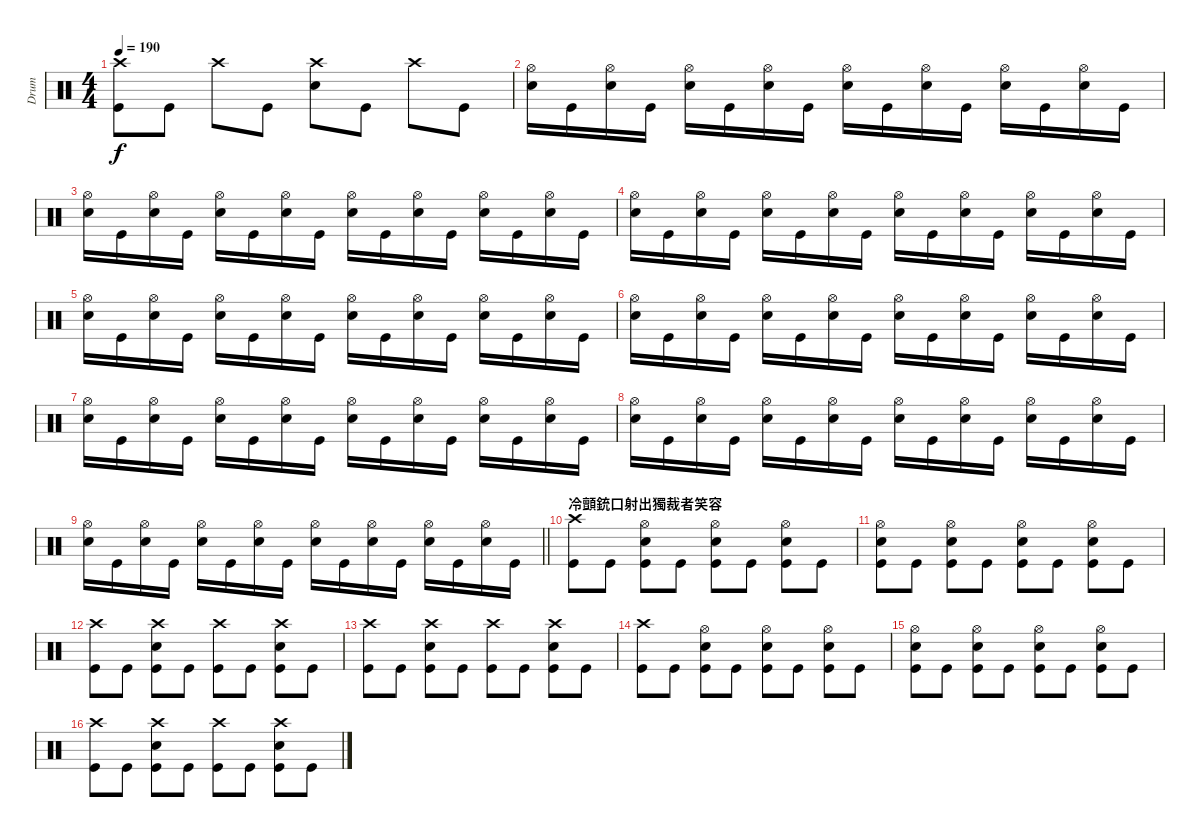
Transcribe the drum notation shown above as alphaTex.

\track ("Drum" "Drum") {instrument percussion}
\staff {score}
\articulation defaults
\ts (4 4)
\tempo 190
\clef neutral
\ks c
("Crash high (hit)" "Kick (hit)").8{dy f} "Kick (hit)".8 "Crash high (hit)".8 "Kick (hit)".8 ("Snare (hit) 2" "Crash high (hit)").8 "Kick (hit)".8 "Crash high (hit)".8 "Kick (hit)".8 |
("Hi-Hat (open)" "Snare (hit) 2").16 "Kick (hit)".16 ("Hi-Hat (open)" "Snare (hit) 2").16 "Kick (hit)".16 ("Hi-Hat (open)" "Snare (hit) 2").16 "Kick (hit)".16 ("Hi-Hat (open)" "Snare (hit) 2").16 "Kick (hit)".16 ("Hi-Hat (open)" "Snare (hit) 2").16 "Kick (hit)".16 ("Hi-Hat (open)" "Snare (hit) 2").16 "Kick (hit)".16 ("Hi-Hat (open)" "Snare (hit) 2").16 "Kick (hit)".16 ("Hi-Hat (open)" "Snare (hit) 2").16 "Kick (hit)".16 |
("Hi-Hat (open)" "Snare (hit) 2").16 "Kick (hit)".16 ("Hi-Hat (open)" "Snare (hit) 2").16 "Kick (hit)".16 ("Hi-Hat (open)" "Snare (hit) 2").16 "Kick (hit)".16 ("Hi-Hat (open)" "Snare (hit) 2").16 "Kick (hit)".16 ("Hi-Hat (open)" "Snare (hit) 2").16 "Kick (hit)".16 ("Hi-Hat (open)" "Snare (hit) 2").16 "Kick (hit)".16 ("Hi-Hat (open)" "Snare (hit) 2").16 "Kick (hit)".16 ("Hi-Hat (open)" "Snare (hit) 2").16 "Kick (hit)".16 |
("Hi-Hat (open)" "Snare (hit) 2").16 "Kick (hit)".16 ("Hi-Hat (open)" "Snare (hit) 2").16 "Kick (hit)".16 ("Hi-Hat (open)" "Snare (hit) 2").16 "Kick (hit)".16 ("Hi-Hat (open)" "Snare (hit) 2").16 "Kick (hit)".16 ("Hi-Hat (open)" "Snare (hit) 2").16 "Kick (hit)".16 ("Hi-Hat (open)" "Snare (hit) 2").16 "Kick (hit)".16 ("Hi-Hat (open)" "Snare (hit) 2").16 "Kick (hit)".16 ("Hi-Hat (open)" "Snare (hit) 2").16 "Kick (hit)".16 |
("Hi-Hat (open)" "Snare (hit) 2").16 "Kick (hit)".16 ("Hi-Hat (open)" "Snare (hit) 2").16 "Kick (hit)".16 ("Hi-Hat (open)" "Snare (hit) 2").16 "Kick (hit)".16 ("Hi-Hat (open)" "Snare (hit) 2").16 "Kick (hit)".16 ("Hi-Hat (open)" "Snare (hit) 2").16 "Kick (hit)".16 ("Hi-Hat (open)" "Snare (hit) 2").16 "Kick (hit)".16 ("Hi-Hat (open)" "Snare (hit) 2").16 "Kick (hit)".16 ("Hi-Hat (open)" "Snare (hit) 2").16 "Kick (hit)".16 |
("Hi-Hat (open)" "Snare (hit) 2").16 "Kick (hit)".16 ("Hi-Hat (open)" "Snare (hit) 2").16 "Kick (hit)".16 ("Hi-Hat (open)" "Snare (hit) 2").16 "Kick (hit)".16 ("Hi-Hat (open)" "Snare (hit) 2").16 "Kick (hit)".16 ("Hi-Hat (open)" "Snare (hit) 2").16 "Kick (hit)".16 ("Hi-Hat (open)" "Snare (hit) 2").16 "Kick (hit)".16 ("Hi-Hat (open)" "Snare (hit) 2").16 "Kick (hit)".16 ("Hi-Hat (open)" "Snare (hit) 2").16 "Kick (hit)".16 |
("Hi-Hat (open)" "Snare (hit) 2").16 "Kick (hit)".16 ("Hi-Hat (open)" "Snare (hit) 2").16 "Kick (hit)".16 ("Hi-Hat (open)" "Snare (hit) 2").16 "Kick (hit)".16 ("Hi-Hat (open)" "Snare (hit) 2").16 "Kick (hit)".16 ("Hi-Hat (open)" "Snare (hit) 2").16 "Kick (hit)".16 ("Hi-Hat (open)" "Snare (hit) 2").16 "Kick (hit)".16 ("Hi-Hat (open)" "Snare (hit) 2").16 "Kick (hit)".16 ("Hi-Hat (open)" "Snare (hit) 2").16 "Kick (hit)".16 |
("Hi-Hat (open)" "Snare (hit) 2").16 "Kick (hit)".16 ("Hi-Hat (open)" "Snare (hit) 2").16 "Kick (hit)".16 ("Hi-Hat (open)" "Snare (hit) 2").16 "Kick (hit)".16 ("Hi-Hat (open)" "Snare (hit) 2").16 "Kick (hit)".16 ("Hi-Hat (open)" "Snare (hit) 2").16 "Kick (hit)".16 ("Hi-Hat (open)" "Snare (hit) 2").16 "Kick (hit)".16 ("Hi-Hat (open)" "Snare (hit) 2").16 "Kick (hit)".16 ("Hi-Hat (open)" "Snare (hit) 2").16 "Kick (hit)".16 |
\barLineRight lightlight
("Hi-Hat (open)" "Snare (hit) 2").16 "Kick (hit)".16 ("Hi-Hat (open)" "Snare (hit) 2").16 "Kick (hit)".16 ("Hi-Hat (open)" "Snare (hit) 2").16 "Kick (hit)".16 ("Hi-Hat (open)" "Snare (hit) 2").16 "Kick (hit)".16 ("Hi-Hat (open)" "Snare (hit) 2").16 "Kick (hit)".16 ("Hi-Hat (open)" "Snare (hit) 2").16 "Kick (hit)".16 ("Hi-Hat (open)" "Snare (hit) 2").16 "Kick (hit)".16 ("Hi-Hat (open)" "Snare (hit) 2").16 "Kick (hit)".16 |
\section ("" "冷顫銃口射出獨裁者笑容")
("Crash high (hit)" "Kick (hit)").8 "Kick (hit)".8 ("Hi-Hat (open)" "Snare (hit) 2" "Kick (hit)").8 "Kick (hit)".8 ("Hi-Hat (open)" "Snare (hit) 2" "Kick (hit)").8 "Kick (hit)".8 ("Hi-Hat (open)" "Snare (hit) 2" "Kick (hit)").8 "Kick (hit)".8 |
("Hi-Hat (open)" "Snare (hit) 2" "Kick (hit)").8 "Kick (hit)".8 ("Hi-Hat (open)" "Snare (hit) 2" "Kick (hit)").8 "Kick (hit)".8 ("Hi-Hat (open)" "Snare (hit) 2" "Kick (hit)").8 "Kick (hit)".8 ("Hi-Hat (open)" "Snare (hit) 2" "Kick (hit)").8 "Kick (hit)".8 |
("Crash high (hit)" "Kick (hit)").8 "Kick (hit)".8 ("Crash high (hit)" "Kick (hit)" "Snare (hit) 2").8 "Kick (hit)".8 ("Crash high (hit)" "Kick (hit)").8 "Kick (hit)".8 ("Snare (hit) 2" "Kick (hit)" "Crash high (hit)").8 "Kick (hit)".8 |
("Crash high (hit)" "Kick (hit)").8 "Kick (hit)".8 ("Crash high (hit)" "Kick (hit)" "Snare (hit) 2").8 "Kick (hit)".8 ("Crash high (hit)" "Kick (hit)").8 "Kick (hit)".8 ("Snare (hit) 2" "Kick (hit)" "Crash high (hit)").8 "Kick (hit)".8 |
("Crash high (hit)" "Kick (hit)").8 "Kick (hit)".8 ("Hi-Hat (open)" "Snare (hit) 2" "Kick (hit)").8 "Kick (hit)".8 ("Hi-Hat (open)" "Snare (hit) 2" "Kick (hit)").8 "Kick (hit)".8 ("Hi-Hat (open)" "Snare (hit) 2" "Kick (hit)").8 "Kick (hit)".8 |
("Hi-Hat (open)" "Snare (hit) 2" "Kick (hit)").8 "Kick (hit)".8 ("Hi-Hat (open)" "Snare (hit) 2" "Kick (hit)").8 "Kick (hit)".8 ("Hi-Hat (open)" "Snare (hit) 2" "Kick (hit)").8 "Kick (hit)".8 ("Hi-Hat (open)" "Snare (hit) 2" "Kick (hit)").8 "Kick (hit)".8 |
("Crash high (hit)" "Kick (hit)").8 "Kick (hit)".8 ("Crash high (hit)" "Kick (hit)" "Snare (hit) 2").8 "Kick (hit)".8 ("Crash high (hit)" "Kick (hit)").8 "Kick (hit)".8 ("Snare (hit) 2" "Kick (hit)" "Crash high (hit)").8 "Kick (hit)".8
